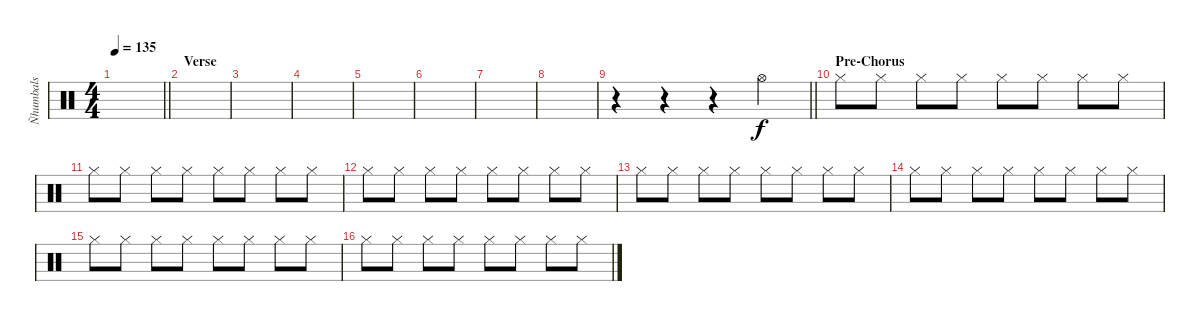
\track ("Ñhumbals" "Ñhumbals") {instrument percussion}
\staff {score}
\articulation defaults
\ts (4 4)
\tempo 135
\clef neutral
\barLineRight lightlight
\ks c
|
\section ("" "Verse")
|
|
|
|
|
|
|
\barLineRight lightlight
r.4 r.4 r.4 "Hi-Hat (open)".4 |
\section ("" "Pre-Chorus")
"Hi-Hat (closed)".8 "Hi-Hat (closed)".8 "Hi-Hat (closed)".8 "Hi-Hat (closed)".8 "Hi-Hat (closed)".8 "Hi-Hat (closed)".8 "Hi-Hat (closed)".8 "Hi-Hat (closed)".8 |
"Hi-Hat (closed)".8 "Hi-Hat (closed)".8 "Hi-Hat (closed)".8 "Hi-Hat (closed)".8 "Hi-Hat (closed)".8 "Hi-Hat (closed)".8 "Hi-Hat (closed)".8 "Hi-Hat (closed)".8 |
"Hi-Hat (closed)".8 "Hi-Hat (closed)".8 "Hi-Hat (closed)".8 "Hi-Hat (closed)".8 "Hi-Hat (closed)".8 "Hi-Hat (closed)".8 "Hi-Hat (closed)".8 "Hi-Hat (closed)".8 |
"Hi-Hat (closed)".8 "Hi-Hat (closed)".8 "Hi-Hat (closed)".8 "Hi-Hat (closed)".8 "Hi-Hat (closed)".8 "Hi-Hat (closed)".8 "Hi-Hat (closed)".8 "Hi-Hat (closed)".8 |
"Hi-Hat (closed)".8 "Hi-Hat (closed)".8 "Hi-Hat (closed)".8 "Hi-Hat (closed)".8 "Hi-Hat (closed)".8 "Hi-Hat (closed)".8 "Hi-Hat (closed)".8 "Hi-Hat (closed)".8 |
"Hi-Hat (closed)".8 "Hi-Hat (closed)".8 "Hi-Hat (closed)".8 "Hi-Hat (closed)".8 "Hi-Hat (closed)".8 "Hi-Hat (closed)".8 "Hi-Hat (closed)".8 "Hi-Hat (closed)".8 |
"Hi-Hat (closed)".8 "Hi-Hat (closed)".8 "Hi-Hat (closed)".8 "Hi-Hat (closed)".8 "Hi-Hat (closed)".8 "Hi-Hat (closed)".8 "Hi-Hat (closed)".8 "Hi-Hat (closed)".8
